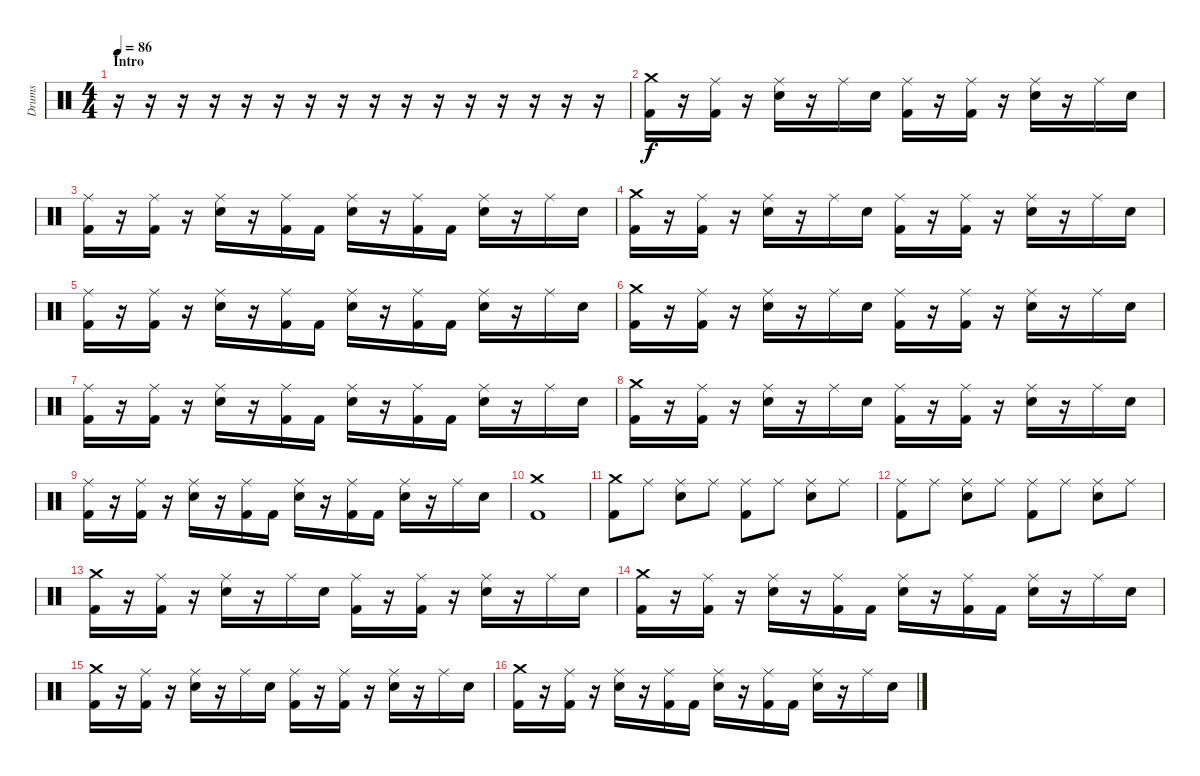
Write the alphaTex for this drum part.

\track ("Drums" "Drums") {instrument percussion}
\staff {score}
\articulation defaults
\ts (4 4)
\section ("" "Intro")
\tempo 86
\clef neutral
\ks c
r.16{dy f} r.16 r.16 r.16 r.16 r.16 r.16 r.16 r.16 r.16 r.16 r.16 r.16 r.16 r.16 r.16 |
("Crash medium (hit)" "Kick (hit) 2").16 r.16 ("Ride (middle)" "Kick (hit) 2").16 r.16 ("Ride (middle)" "Snare (hit) 2").16 r.16 "Ride (middle)".16 "Snare (hit) 2".16 ("Ride (middle)" "Kick (hit) 2").16 r.16 ("Ride (middle)" "Kick (hit) 2").16 r.16 ("Ride (middle)" "Snare (hit) 2").16 r.16 "Ride (middle)".16 "Snare (hit) 2".16 |
("Ride (middle)" "Kick (hit) 2").16 r.16 ("Ride (middle)" "Kick (hit) 2").16 r.16 ("Ride (middle)" "Snare (hit) 2").16 r.16 ("Ride (middle)" "Kick (hit) 2").16 "Kick (hit) 2".16 ("Ride (middle)" "Snare (hit) 2").16 r.16 ("Ride (middle)" "Kick (hit) 2").16 "Kick (hit) 2".16 ("Ride (middle)" "Snare (hit) 2").16 r.16 "Ride (middle)".16 "Snare (hit) 2".16 |
("Crash medium (hit)" "Kick (hit) 2").16 r.16 ("Ride (middle)" "Kick (hit) 2").16 r.16 ("Ride (middle)" "Snare (hit) 2").16 r.16 "Ride (middle)".16 "Snare (hit) 2".16 ("Ride (middle)" "Kick (hit) 2").16 r.16 ("Ride (middle)" "Kick (hit) 2").16 r.16 ("Ride (middle)" "Snare (hit) 2").16 r.16 "Ride (middle)".16 "Snare (hit) 2".16 |
("Ride (middle)" "Kick (hit) 2").16 r.16 ("Ride (middle)" "Kick (hit) 2").16 r.16 ("Ride (middle)" "Snare (hit) 2").16 r.16 ("Ride (middle)" "Kick (hit) 2").16 "Kick (hit) 2".16 ("Ride (middle)" "Snare (hit) 2").16 r.16 ("Ride (middle)" "Kick (hit) 2").16 "Kick (hit) 2".16 ("Ride (middle)" "Snare (hit) 2").16 r.16 "Ride (middle)".16 "Snare (hit) 2".16 |
("Crash medium (hit)" "Kick (hit) 2").16 r.16 ("Ride (middle)" "Kick (hit) 2").16 r.16 ("Ride (middle)" "Snare (hit) 2").16 r.16 "Ride (middle)".16 "Snare (hit) 2".16 ("Ride (middle)" "Kick (hit) 2").16 r.16 ("Ride (middle)" "Kick (hit) 2").16 r.16 ("Ride (middle)" "Snare (hit) 2").16 r.16 "Ride (middle)".16 "Snare (hit) 2".16 |
("Ride (middle)" "Kick (hit) 2").16 r.16 ("Ride (middle)" "Kick (hit) 2").16 r.16 ("Ride (middle)" "Snare (hit) 2").16 r.16 ("Ride (middle)" "Kick (hit) 2").16 "Kick (hit) 2".16 ("Ride (middle)" "Snare (hit) 2").16 r.16 ("Ride (middle)" "Kick (hit) 2").16 "Kick (hit) 2".16 ("Ride (middle)" "Snare (hit) 2").16 r.16 "Ride (middle)".16 "Snare (hit) 2".16 |
("Crash medium (hit)" "Kick (hit) 2").16 r.16 ("Ride (middle)" "Kick (hit) 2").16 r.16 ("Ride (middle)" "Snare (hit) 2").16 r.16 "Ride (middle)".16 "Snare (hit) 2".16 ("Ride (middle)" "Kick (hit) 2").16 r.16 ("Ride (middle)" "Kick (hit) 2").16 r.16 ("Ride (middle)" "Snare (hit) 2").16 r.16 "Ride (middle)".16 "Snare (hit) 2".16 |
("Ride (middle)" "Kick (hit) 2").16 r.16 ("Ride (middle)" "Kick (hit) 2").16 r.16 ("Ride (middle)" "Snare (hit) 2").16 r.16 ("Ride (middle)" "Kick (hit) 2").16 "Kick (hit) 2".16 ("Ride (middle)" "Snare (hit) 2").16 r.16 ("Ride (middle)" "Kick (hit) 2").16 "Kick (hit) 2".16 ("Ride (middle)" "Snare (hit) 2").16 r.16 "Ride (middle)".16 "Snare (hit) 2".16 |
("Crash medium (hit)" "Kick (hit) 2").1 |
("Crash medium (hit)" "Kick (hit) 2").8 "Ride (middle)".8 ("Ride (middle)" "Snare (hit) 2").8 "Ride (middle)".8 ("Ride (middle)" "Kick (hit) 2").8 "Ride (middle)".8 ("Ride (middle)" "Snare (hit) 2").8 "Ride (middle)".8 |
("Ride (middle)" "Kick (hit) 2").8 "Ride (middle)".8 ("Ride (middle)" "Snare (hit) 2").8 "Ride (middle)".8 ("Ride (middle)" "Kick (hit) 2").8 "Ride (middle)".8 ("Ride (middle)" "Snare (hit) 2").8 "Ride (middle)".8 |
("Crash medium (hit)" "Kick (hit) 2").16 r.16 ("Ride (middle)" "Kick (hit) 2").16 r.16 ("Ride (middle)" "Snare (hit) 2").16 r.16 "Ride (middle)".16 "Snare (hit) 2".16 ("Ride (middle)" "Kick (hit) 2").16 r.16 ("Ride (middle)" "Kick (hit) 2").16 r.16 ("Ride (middle)" "Snare (hit) 2").16 r.16 "Ride (middle)".16 "Snare (hit) 2".16 |
("Crash medium (hit)" "Kick (hit) 2").16 r.16 ("Ride (middle)" "Kick (hit) 2").16 r.16 ("Ride (middle)" "Snare (hit) 2").16 r.16 ("Ride (middle)" "Kick (hit) 2").16 "Kick (hit) 2".16 ("Ride (middle)" "Snare (hit) 2").16 r.16 ("Ride (middle)" "Kick (hit) 2").16 "Kick (hit) 2".16 ("Ride (middle)" "Snare (hit) 2").16 r.16 "Ride (middle)".16 "Snare (hit) 2".16 |
("Crash medium (hit)" "Kick (hit) 2").16 r.16 ("Ride (middle)" "Kick (hit) 2").16 r.16 ("Ride (middle)" "Snare (hit) 2").16 r.16 "Ride (middle)".16 "Snare (hit) 2".16 ("Ride (middle)" "Kick (hit) 2").16 r.16 ("Ride (middle)" "Kick (hit) 2").16 r.16 ("Ride (middle)" "Snare (hit) 2").16 r.16 "Ride (middle)".16 "Snare (hit) 2".16 |
("Crash medium (hit)" "Kick (hit) 2").16 r.16 ("Ride (middle)" "Kick (hit) 2").16 r.16 ("Ride (middle)" "Snare (hit) 2").16 r.16 ("Ride (middle)" "Kick (hit) 2").16 "Kick (hit) 2".16 ("Ride (middle)" "Snare (hit) 2").16 r.16 ("Ride (middle)" "Kick (hit) 2").16 "Kick (hit) 2".16 ("Ride (middle)" "Snare (hit) 2").16 r.16 "Ride (middle)".16 "Snare (hit) 2".16
